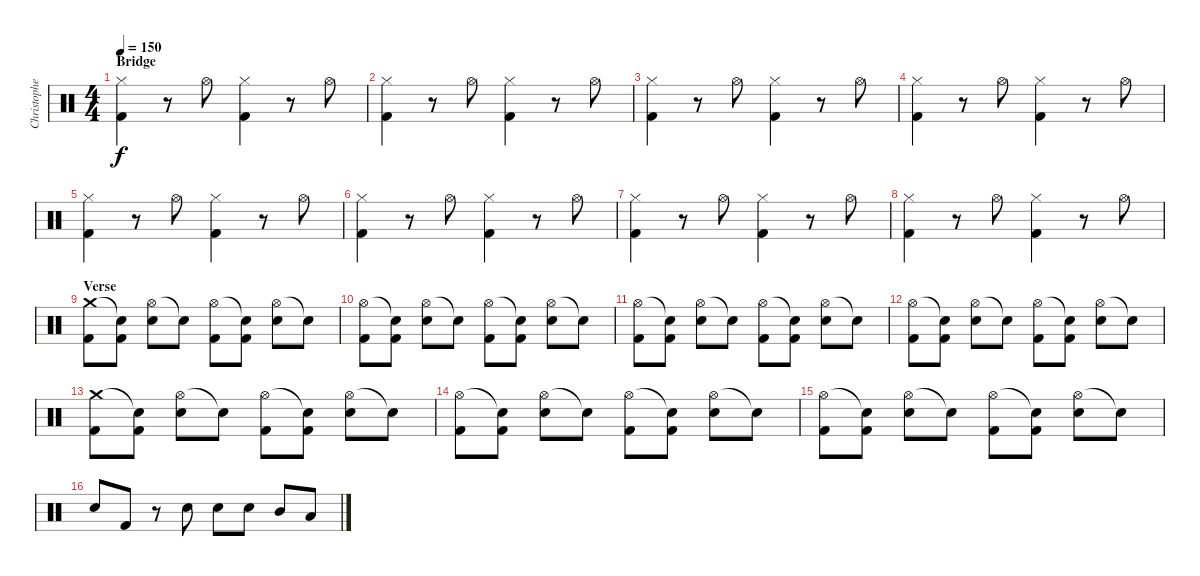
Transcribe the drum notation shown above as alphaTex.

\track ("Christopher Schneider" "Christophe") {instrument percussion}
\staff {score}
\articulation defaults
\ts (4 4)
\section ("" "Bridge")
\tempo 150
\clef neutral
\ks c
("Hi-Hat (closed)" "Kick (hit) 2").4{dy f} r.8 "Hi-Hat (open)".8 ("Hi-Hat (closed)" "Kick (hit) 2").4 r.8 "Hi-Hat (open)".8 |
("Hi-Hat (closed)" "Kick (hit) 2").4 r.8 "Hi-Hat (open)".8 ("Hi-Hat (closed)" "Kick (hit) 2").4 r.8 "Hi-Hat (open)".8 |
("Hi-Hat (closed)" "Kick (hit) 2").4 r.8 "Hi-Hat (open)".8 ("Hi-Hat (closed)" "Kick (hit) 2").4 r.8 "Hi-Hat (open)".8 |
("Hi-Hat (closed)" "Kick (hit) 2").4 r.8 "Hi-Hat (open)".8 ("Hi-Hat (closed)" "Kick (hit) 2").4 r.8 "Hi-Hat (open)".8 |
("Hi-Hat (closed)" "Kick (hit) 2").4 r.8 "Hi-Hat (open)".8 ("Hi-Hat (closed)" "Kick (hit) 2").4 r.8 "Hi-Hat (open)".8 |
("Hi-Hat (closed)" "Kick (hit) 2").4 r.8 "Hi-Hat (open)".8 ("Hi-Hat (closed)" "Kick (hit) 2").4 r.8 "Hi-Hat (open)".8 |
("Hi-Hat (closed)" "Kick (hit) 2").4 r.8 "Hi-Hat (open)".8 ("Hi-Hat (closed)" "Kick (hit) 2").4 r.8 "Hi-Hat (open)".8 |
("Hi-Hat (closed)" "Kick (hit) 2").4 r.8 "Hi-Hat (open)".8 ("Hi-Hat (closed)" "Kick (hit) 2").4 r.8 "Hi-Hat (open)".8 |
\section ("" "Verse")
("Crash medium (hit)" "Kick (hit) 2").8{volume 16} ("Snare (hit)"{t} "Kick (hit) 2").8 ("Hi-Hat (open)" "Electric Snare (hit)").8 "Snare (hit)"{t}.8 ("Hi-Hat (open)" "Kick (hit) 2").8 ("Snare (hit)"{t} "Kick (hit) 2").8 ("Hi-Hat (open)" "Electric Snare (hit)").8 "Snare (hit)"{t}.8 |
("Hi-Hat (open)" "Kick (hit) 2").8 ("Snare (hit)"{t} "Kick (hit) 2").8 ("Hi-Hat (open)" "Electric Snare (hit)").8 "Snare (hit)"{t}.8 ("Hi-Hat (open)" "Kick (hit) 2").8 ("Snare (hit)"{t} "Kick (hit) 2").8 ("Hi-Hat (open)" "Electric Snare (hit)").8 "Snare (hit)"{t}.8 |
("Hi-Hat (open)" "Kick (hit) 2").8 ("Snare (hit)"{t} "Kick (hit) 2").8 ("Hi-Hat (open)" "Electric Snare (hit)").8 "Snare (hit)"{t}.8 ("Hi-Hat (open)" "Kick (hit) 2").8 ("Snare (hit)"{t} "Kick (hit) 2").8 ("Hi-Hat (open)" "Electric Snare (hit)").8 "Snare (hit)"{t}.8 |
("Hi-Hat (open)" "Kick (hit) 2").8 ("Snare (hit)"{t} "Kick (hit) 2").8 ("Hi-Hat (open)" "Electric Snare (hit)").8 "Snare (hit)"{t}.8 ("Hi-Hat (open)" "Kick (hit) 2").8 ("Snare (hit)"{t} "Kick (hit) 2").8 ("Hi-Hat (open)" "Electric Snare (hit)").8 "Snare (hit)"{t}.8 |
("Crash medium (hit)" "Kick (hit) 2").8 ("Snare (hit)"{t} "Kick (hit) 2").8 ("Hi-Hat (open)" "Electric Snare (hit)").8 "Snare (hit)"{t}.8 ("Hi-Hat (open)" "Kick (hit) 2").8 ("Snare (hit)"{t} "Kick (hit) 2").8 ("Hi-Hat (open)" "Electric Snare (hit)").8 "Snare (hit)"{t}.8 |
("Hi-Hat (open)" "Kick (hit) 2").8 ("Snare (hit)"{t} "Kick (hit) 2").8 ("Hi-Hat (open)" "Electric Snare (hit)").8 "Snare (hit)"{t}.8 ("Hi-Hat (open)" "Kick (hit) 2").8 ("Snare (hit)"{t} "Kick (hit) 2").8 ("Hi-Hat (open)" "Electric Snare (hit)").8 "Snare (hit)"{t}.8 |
("Hi-Hat (open)" "Kick (hit) 2").8 ("Snare (hit)"{t} "Kick (hit) 2").8 ("Hi-Hat (open)" "Electric Snare (hit)").8 "Snare (hit)"{t}.8 ("Hi-Hat (open)" "Kick (hit) 2").8 ("Snare (hit)"{t} "Kick (hit) 2").8 ("Hi-Hat (open)" "Electric Snare (hit)").8 "Snare (hit)"{t}.8 |
"Electric Snare (hit)".8 "Kick (hit) 2".8 r.8 "Electric Snare (hit)".8 "Electric Snare (hit)".8 "Electric Snare (hit)".8 "Mid Tom (hit)".8 "Low Tom (hit)".8
